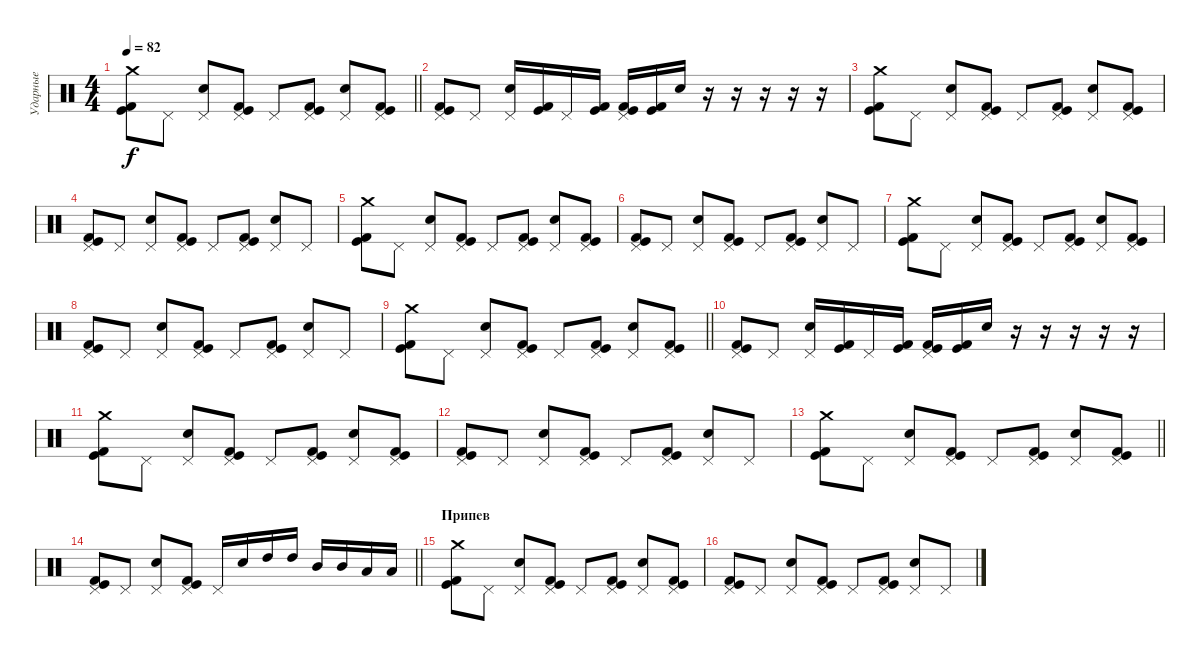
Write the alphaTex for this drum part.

\track ("Ударные" "Ударные") {instrument percussion}
\staff {score}
\articulation defaults
\ts (4 4)
\tempo 82
\clef neutral
\barLineRight lightlight
\ks c
("Crash medium (hit)" "Kick (hit)" "Kick (hit) 2").8{dy f} "Pedal Hi-Hat (hit)".8 ("Pedal Hi-Hat (hit)" "Electric Snare (hit)").8 ("Pedal Hi-Hat (hit)" "Kick (hit)" "Kick (hit) 2").8 "Pedal Hi-Hat (hit)".8 ("Pedal Hi-Hat (hit)" "Kick (hit)" "Kick (hit) 2").8 ("Pedal Hi-Hat (hit)" "Electric Snare (hit)").8 ("Pedal Hi-Hat (hit)" "Kick (hit)" "Kick (hit) 2").8 |
\section ("" "")
("Pedal Hi-Hat (hit)" "Kick (hit)" "Kick (hit) 2").8 "Pedal Hi-Hat (hit)".8 ("Pedal Hi-Hat (hit)" "Electric Snare (hit)").16 ("Kick (hit)" "Kick (hit) 2").16 "Pedal Hi-Hat (hit)".16 ("Kick (hit)" "Kick (hit) 2").16 ("Pedal Hi-Hat (hit)" "Kick (hit)" "Kick (hit) 2").16 ("Kick (hit)" "Kick (hit) 2").16 "Electric Snare (hit)".16 r.16 r.16 r.16 r.16 r.16 |
("Crash medium (hit)" "Kick (hit)" "Kick (hit) 2").8 "Pedal Hi-Hat (hit)".8 ("Pedal Hi-Hat (hit)" "Electric Snare (hit)").8 ("Pedal Hi-Hat (hit)" "Kick (hit)" "Kick (hit) 2").8 "Pedal Hi-Hat (hit)".8 ("Pedal Hi-Hat (hit)" "Kick (hit)" "Kick (hit) 2").8 ("Pedal Hi-Hat (hit)" "Electric Snare (hit)").8 ("Pedal Hi-Hat (hit)" "Kick (hit)" "Kick (hit) 2").8 |
("Pedal Hi-Hat (hit)" "Kick (hit)" "Kick (hit) 2").8 "Pedal Hi-Hat (hit)".8 ("Pedal Hi-Hat (hit)" "Electric Snare (hit)").8 ("Pedal Hi-Hat (hit)" "Kick (hit)" "Kick (hit) 2").8 "Pedal Hi-Hat (hit)".8 ("Pedal Hi-Hat (hit)" "Kick (hit)" "Kick (hit) 2").8 ("Pedal Hi-Hat (hit)" "Electric Snare (hit)").8 "Pedal Hi-Hat (hit)".8 |
("Crash medium (hit)" "Kick (hit)" "Kick (hit) 2").8 "Pedal Hi-Hat (hit)".8 ("Pedal Hi-Hat (hit)" "Electric Snare (hit)").8 ("Pedal Hi-Hat (hit)" "Kick (hit)" "Kick (hit) 2").8 "Pedal Hi-Hat (hit)".8 ("Pedal Hi-Hat (hit)" "Kick (hit)" "Kick (hit) 2").8 ("Pedal Hi-Hat (hit)" "Electric Snare (hit)").8 ("Pedal Hi-Hat (hit)" "Kick (hit)" "Kick (hit) 2").8 |
("Pedal Hi-Hat (hit)" "Kick (hit)" "Kick (hit) 2").8 "Pedal Hi-Hat (hit)".8 ("Pedal Hi-Hat (hit)" "Electric Snare (hit)").8 ("Pedal Hi-Hat (hit)" "Kick (hit)" "Kick (hit) 2").8 "Pedal Hi-Hat (hit)".8 ("Pedal Hi-Hat (hit)" "Kick (hit)" "Kick (hit) 2").8 ("Pedal Hi-Hat (hit)" "Electric Snare (hit)").8 "Pedal Hi-Hat (hit)".8 |
("Crash medium (hit)" "Kick (hit)" "Kick (hit) 2").8 "Pedal Hi-Hat (hit)".8 ("Pedal Hi-Hat (hit)" "Electric Snare (hit)").8 ("Pedal Hi-Hat (hit)" "Kick (hit)" "Kick (hit) 2").8 "Pedal Hi-Hat (hit)".8 ("Pedal Hi-Hat (hit)" "Kick (hit)" "Kick (hit) 2").8 ("Pedal Hi-Hat (hit)" "Electric Snare (hit)").8 ("Pedal Hi-Hat (hit)" "Kick (hit)" "Kick (hit) 2").8 |
("Pedal Hi-Hat (hit)" "Kick (hit)" "Kick (hit) 2").8 "Pedal Hi-Hat (hit)".8 ("Pedal Hi-Hat (hit)" "Electric Snare (hit)").8 ("Pedal Hi-Hat (hit)" "Kick (hit)" "Kick (hit) 2").8 "Pedal Hi-Hat (hit)".8 ("Pedal Hi-Hat (hit)" "Kick (hit)" "Kick (hit) 2").8 ("Pedal Hi-Hat (hit)" "Electric Snare (hit)").8 "Pedal Hi-Hat (hit)".8 |
\barLineRight lightlight
("Crash medium (hit)" "Kick (hit)" "Kick (hit) 2").8 "Pedal Hi-Hat (hit)".8 ("Pedal Hi-Hat (hit)" "Electric Snare (hit)").8 ("Pedal Hi-Hat (hit)" "Kick (hit)" "Kick (hit) 2").8 "Pedal Hi-Hat (hit)".8 ("Pedal Hi-Hat (hit)" "Kick (hit)" "Kick (hit) 2").8 ("Pedal Hi-Hat (hit)" "Electric Snare (hit)").8 ("Pedal Hi-Hat (hit)" "Kick (hit)" "Kick (hit) 2").8 |
("Pedal Hi-Hat (hit)" "Kick (hit)" "Kick (hit) 2").8 "Pedal Hi-Hat (hit)".8 ("Pedal Hi-Hat (hit)" "Electric Snare (hit)").16 ("Kick (hit)" "Kick (hit) 2").16 "Pedal Hi-Hat (hit)".16 ("Kick (hit)" "Kick (hit) 2").16 ("Pedal Hi-Hat (hit)" "Kick (hit)" "Kick (hit) 2").16 ("Kick (hit)" "Kick (hit) 2").16 "Electric Snare (hit)".16 r.16 r.16 r.16 r.16 r.16 |
("Crash medium (hit)" "Kick (hit)" "Kick (hit) 2").8 "Pedal Hi-Hat (hit)".8 ("Pedal Hi-Hat (hit)" "Electric Snare (hit)").8 ("Pedal Hi-Hat (hit)" "Kick (hit)" "Kick (hit) 2").8 "Pedal Hi-Hat (hit)".8 ("Pedal Hi-Hat (hit)" "Kick (hit)" "Kick (hit) 2").8 ("Pedal Hi-Hat (hit)" "Electric Snare (hit)").8 ("Pedal Hi-Hat (hit)" "Kick (hit)" "Kick (hit) 2").8 |
("Pedal Hi-Hat (hit)" "Kick (hit)" "Kick (hit) 2").8 "Pedal Hi-Hat (hit)".8 ("Pedal Hi-Hat (hit)" "Electric Snare (hit)").8 ("Pedal Hi-Hat (hit)" "Kick (hit)" "Kick (hit) 2").8 "Pedal Hi-Hat (hit)".8 ("Pedal Hi-Hat (hit)" "Kick (hit)" "Kick (hit) 2").8 ("Pedal Hi-Hat (hit)" "Electric Snare (hit)").8 "Pedal Hi-Hat (hit)".8 |
\barLineRight lightlight
("Crash medium (hit)" "Kick (hit)" "Kick (hit) 2").8 "Pedal Hi-Hat (hit)".8 ("Pedal Hi-Hat (hit)" "Electric Snare (hit)").8 ("Pedal Hi-Hat (hit)" "Kick (hit)" "Kick (hit) 2").8 "Pedal Hi-Hat (hit)".8 ("Pedal Hi-Hat (hit)" "Kick (hit)" "Kick (hit) 2").8 ("Pedal Hi-Hat (hit)" "Electric Snare (hit)").8 ("Pedal Hi-Hat (hit)" "Kick (hit)" "Kick (hit) 2").8 |
\barLineRight lightlight
("Pedal Hi-Hat (hit)" "Kick (hit)" "Kick (hit) 2").8 "Pedal Hi-Hat (hit)".8 ("Pedal Hi-Hat (hit)" "Electric Snare (hit)").8 ("Pedal Hi-Hat (hit)" "Kick (hit)" "Kick (hit) 2").8 "Pedal Hi-Hat (hit)".16 "Electric Snare (hit)".16 "High Tom (hit)".16 "High Tom (hit)".16 "Mid Tom (hit)".16 "Mid Tom (hit)".16 "Low Tom (hit)".16 "Low Tom (hit)".16 |
\section ("" "Припев")
("Crash medium (hit)" "Kick (hit)" "Kick (hit) 2").8 "Pedal Hi-Hat (hit)".8 ("Pedal Hi-Hat (hit)" "Electric Snare (hit)").8 ("Pedal Hi-Hat (hit)" "Kick (hit)" "Kick (hit) 2").8 "Pedal Hi-Hat (hit)".8 ("Pedal Hi-Hat (hit)" "Kick (hit)" "Kick (hit) 2").8 ("Pedal Hi-Hat (hit)" "Electric Snare (hit)").8 ("Pedal Hi-Hat (hit)" "Kick (hit)" "Kick (hit) 2").8 |
("Pedal Hi-Hat (hit)" "Kick (hit)" "Kick (hit) 2").8 "Pedal Hi-Hat (hit)".8 ("Pedal Hi-Hat (hit)" "Electric Snare (hit)").8 ("Pedal Hi-Hat (hit)" "Kick (hit)" "Kick (hit) 2").8 "Pedal Hi-Hat (hit)".8 ("Pedal Hi-Hat (hit)" "Kick (hit)" "Kick (hit) 2").8 ("Pedal Hi-Hat (hit)" "Electric Snare (hit)").8 "Pedal Hi-Hat (hit)".8
